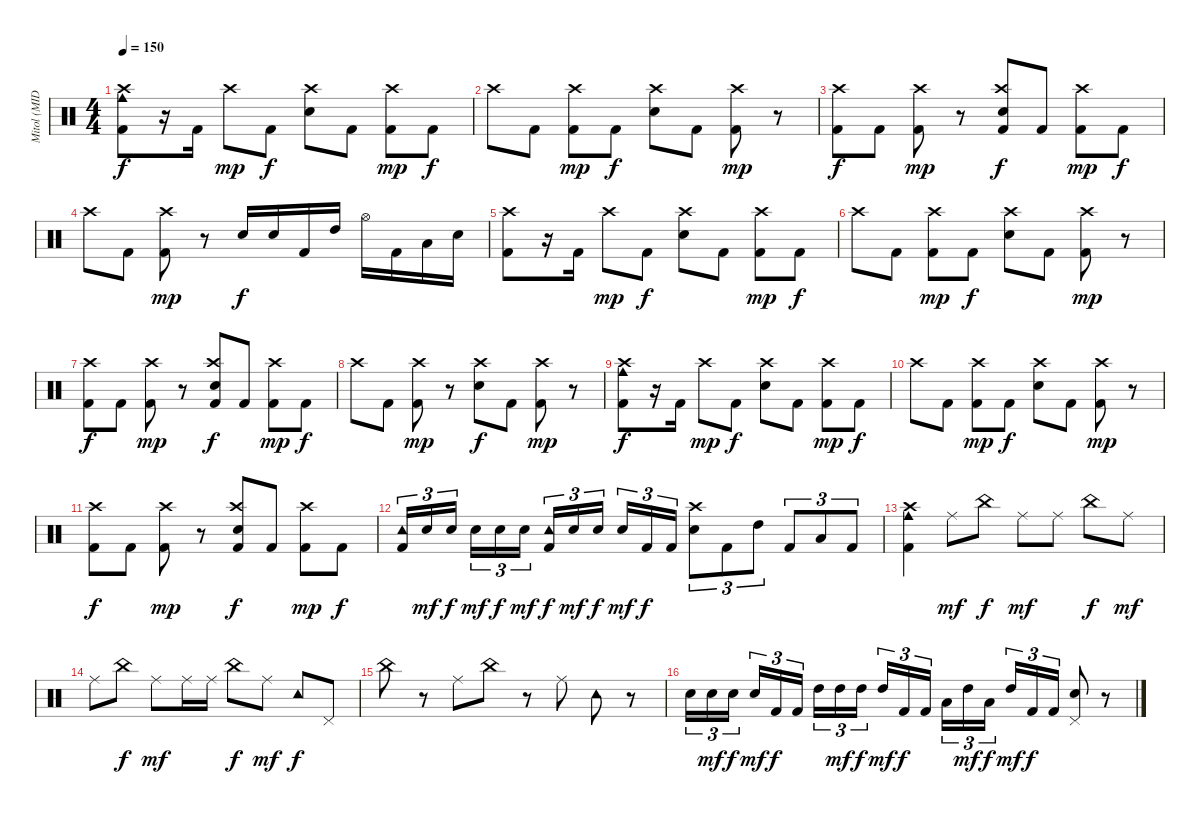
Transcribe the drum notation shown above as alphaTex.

\track ("Mitol (MIDI)" "Mitol (MID") {instrument percussion}
\staff {score}
\articulation defaults
\ts (4 4)
\tempo 150
\clef neutral
\ks c
("Kick (hit) 2" "Crash high (hit)" "Cowbell medium (hit)").8{dy f} r.16 "Kick (hit) 2".16 "Crash high (hit)".8{dy mp} "Kick (hit) 2".8{dy f} ("Crash high (hit)" "Electric Snare (hit)").8 "Kick (hit) 2".8 ("Crash high (hit)" "Kick (hit) 2").8{dy mp} "Kick (hit) 2".8{dy f} |
"Crash high (hit)".8 "Kick (hit) 2".8 ("Kick (hit) 2" "Crash high (hit)").8{dy mp} "Kick (hit) 2".8{dy f} ("Crash high (hit)" "Electric Snare (hit)").8 "Kick (hit) 2".8 ("Crash high (hit)" "Kick (hit) 2").8{dy mp} r.8 |
("Crash high (hit)" "Kick (hit) 2").8{dy f} "Kick (hit) 2".8 ("Kick (hit) 2" "Crash high (hit)").8{dy mp} r.8 ("Crash high (hit)" "Electric Snare (hit)" "Kick (hit) 2").8{dy f} "Kick (hit) 2".8 ("Crash high (hit)" "Kick (hit) 2").8{dy mp} "Kick (hit) 2".8{dy f} |
"Crash high (hit)".8 "Kick (hit) 2".8 ("Crash high (hit)" "Kick (hit) 2").8{dy mp} r.8 "Electric Snare (hit)".16{dy f} "Electric Snare (hit)".16 "Kick (hit) 2".16 "High Tom (hit)".16 "Hi-Hat (open)".16 "Kick (hit) 2".16 "Low Tom (hit)".16 "Electric Snare (hit)".16 |
("Crash high (hit)" "Kick (hit) 2").8 r.16 "Kick (hit) 2".16 "Crash high (hit)".8{dy mp} "Kick (hit) 2".8{dy f} ("Electric Snare (hit)" "Crash high (hit)").8 "Kick (hit) 2".8 ("Crash high (hit)" "Kick (hit) 2").8{dy mp} "Kick (hit) 2".8{dy f} |
"Crash high (hit)".8 "Kick (hit) 2".8 ("Crash high (hit)" "Kick (hit) 2").8{dy mp} "Kick (hit) 2".8{dy f} ("Crash high (hit)" "Electric Snare (hit)").8 "Kick (hit) 2".8 ("Crash high (hit)" "Kick (hit) 2").8{dy mp} r.8 |
("Crash high (hit)" "Kick (hit) 2").8{dy f} "Kick (hit) 2".8 ("Crash high (hit)" "Kick (hit) 2").8{dy mp} r.8 ("Kick (hit) 2" "Electric Snare (hit)" "Crash high (hit)").8{dy f} "Kick (hit) 2".8 ("Crash high (hit)" "Kick (hit) 2").8{dy mp} "Kick (hit) 2".8{dy f} |
"Crash high (hit)".8 "Kick (hit) 2".8 ("Kick (hit) 2" "Crash high (hit)").8{dy mp} r.8 ("Crash high (hit)" "Electric Snare (hit)").8{dy f} "Kick (hit) 2".8 ("Crash high (hit)" "Kick (hit) 2").8{dy mp} r.8 |
("Kick (hit) 2" "Crash high (hit)" "Cowbell medium (hit)").8{dy f} r.16 "Kick (hit) 2".16 "Crash high (hit)".8{dy mp} "Kick (hit) 2".8{dy f} ("Electric Snare (hit)" "Crash high (hit)").8 "Kick (hit) 2".8 ("Crash high (hit)" "Kick (hit) 2").8{dy mp} "Kick (hit) 2".8{dy f} |
"Crash high (hit)".8 "Kick (hit) 2".8 ("Kick (hit) 2" "Crash high (hit)").8{dy mp} "Kick (hit) 2".8{dy f} ("Crash high (hit)" "Electric Snare (hit)").8 "Kick (hit) 2".8 ("Kick (hit) 2" "Crash high (hit)").8{dy mp} r.8 |
("Kick (hit) 2" "Crash high (hit)").8{dy f} "Kick (hit) 2".8 ("Kick (hit) 2" "Crash high (hit)").8{dy mp} r.8 ("Kick (hit) 2" "Electric Snare (hit)" "Crash high (hit)").8{dy f} "Kick (hit) 2".8 ("Kick (hit) 2" "Crash high (hit)").8{dy mp} "Kick (hit) 2".8{dy f} |
("Kick (hit) 2" "Tambourine (hit)").16{tu (3 2)} "Electric Snare (hit)".16{tu (3 2) dy mf} "Electric Snare (hit)".16{tu (3 2) dy f beam splitsecondary} "Electric Snare (hit)".16{tu (3 2) dy mf} "Electric Snare (hit)".16{tu (3 2) dy f} "Electric Snare (hit)".16{tu (3 2) dy mf} ("Tambourine (hit)" "Kick (hit) 2").16{tu (3 2) dy f} "Electric Snare (hit)".16{tu (3 2) dy mf} "Electric Snare (hit)".16{tu (3 2) dy f beam splitsecondary} "Electric Snare (hit)".16{tu (3 2) dy mf} "Kick (hit) 2".16{tu (3 2) dy f} "Kick (hit) 2".16{tu (3 2)} ("Crash high (hit)" "Electric Snare (hit)").8{tu (3 2)} "Kick (hit) 2".8{tu (3 2)} "High Tom (hit)".8{tu (3 2)} "Kick (hit) 2".8{tu (3 2)} "Low Tom (hit)".8{tu (3 2)} "Kick (hit) 2".8{tu (3 2)} |
("Cowbell medium (hit)" "Crash high (hit)" "Kick (hit) 2").4 "Ride (middle)".8{dy mf} "China (hit)".8{dy f} "Ride (middle)".8{dy mf} "Ride (middle)".8 "China (hit)".8{dy f} "Ride (middle)".8{dy mf} |
"Ride (middle)".8 "China (hit)".8{dy f} "Ride (middle)".8{dy mf} "Ride (middle)".16 "Ride (middle)".16 "China (hit)".8{dy f} "Ride (middle)".8{dy mf} "Tambourine (hit)".8{dy f} "Pedal Hi-Hat (hit)".8 |
"China (hit)".8 r.8 "Ride (middle)".8 "China (hit)".8 r.8 "Ride (middle)".8 "Tambourine (hit)".8 r.8 |
"Electric Snare (hit)".16{tu (3 2)} "Electric Snare (hit)".16{tu (3 2) dy mf} "Electric Snare (hit)".16{tu (3 2) dy f beam splitsecondary} "Electric Snare (hit)".16{tu (3 2) dy mf} "Kick (hit) 2".16{tu (3 2) dy f} "Kick (hit) 2".16{tu (3 2)} "High Tom (hit)".16{tu (3 2)} "High Tom (hit)".16{tu (3 2) dy mf} "High Tom (hit)".16{tu (3 2) dy f beam splitsecondary} "High Tom (hit)".16{tu (3 2) dy mf} "Kick (hit) 2".16{tu (3 2) dy f} "Kick (hit) 2".16{tu (3 2)} "Low Tom (hit)".16{tu (3 2)} "High Tom (hit)".16{tu (3 2) dy mf} "Low Tom (hit)".16{tu (3 2) dy f beam splitsecondary} "High Tom (hit)".16{tu (3 2) dy mf} "Kick (hit) 2".16{tu (3 2) dy f} "Kick (hit) 2".16{tu (3 2)} ("Pedal Hi-Hat (hit)" "Electric Snare (hit)").8 r.8
